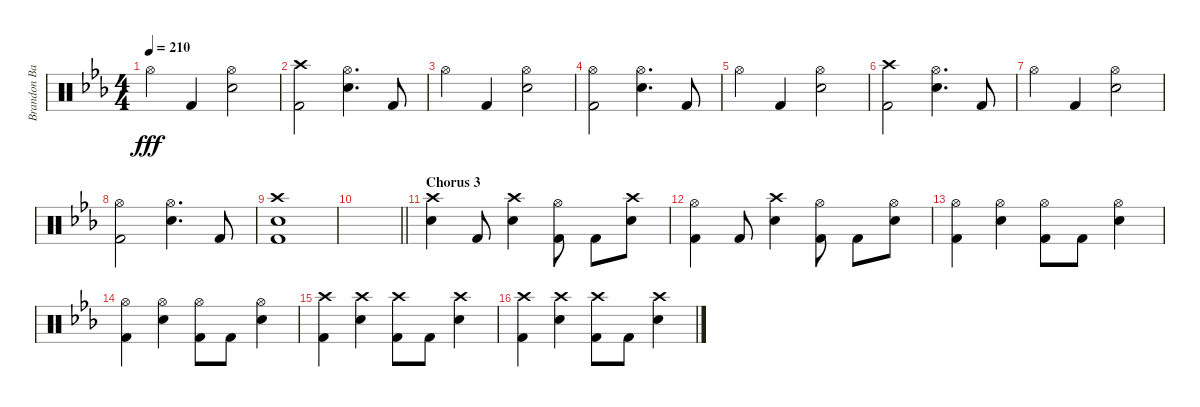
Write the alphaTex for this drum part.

\track ("Brandon Barnes" "Brandon Ba") {instrument percussion}
\staff {score}
\articulation defaults
\ts (4 4)
\tempo 210
\clef neutral
\ks eb "Hi-Hat (open)".4{dy fff} "Kick (hit) 2".4
("Hi-Hat (open)" "Snare (hit) 2").2 |
("Crash high (hit)" "Kick (hit) 2").2 ("Hi-Hat (open)" "Snare (hit) 2").4{d} "Kick (hit) 2".8 |
"Hi-Hat (open)".4 "Kick (hit) 2".4 ("Hi-Hat (open)" "Snare (hit) 2").2 |
("Hi-Hat (open)" "Kick (hit) 2").2 ("Hi-Hat (open)" "Snare (hit) 2").4{d} "Kick (hit) 2".8 |
"Hi-Hat (open)".4 "Kick (hit) 2".4 ("Hi-Hat (open)" "Snare (hit) 2").2 |
("Crash high (hit)" "Kick (hit) 2").2 ("Hi-Hat (open)" "Snare (hit) 2").4{d} "Kick (hit) 2".8 |
"Hi-Hat (open)".4 "Kick (hit) 2".4 ("Hi-Hat (open)" "Snare (hit) 2").2 |
("Hi-Hat (open)" "Kick (hit) 2").2 ("Hi-Hat (open)" "Snare (hit) 2").4{d} "Kick (hit) 2".8 |
("Snare (hit) 2" "Crash high (hit)" "Kick (hit) 2").1 |
\barLineRight lightlight
|
\section ("" "Chorus 3")
("Crash high (hit)" "Snare (hit) 2").4 "Kick (hit) 2".8 ("Crash high (hit)" "Snare (hit) 2").4 ("Hi-Hat (open)" "Kick (hit) 2").8 "Kick (hit) 2".8 ("Crash high (hit)" "Snare (hit) 2").8 |
("Hi-Hat (open)" "Kick (hit) 2").4 "Kick (hit) 2".8 ("Crash high (hit)" "Snare (hit) 2").4 ("Hi-Hat (open)" "Kick (hit) 2").8 "Kick (hit) 2".8 ("Hi-Hat (open)" "Snare (hit) 2").8 |
("Hi-Hat (open)" "Kick (hit) 2").4 ("Hi-Hat (open)" "Snare (hit) 2").4 ("Hi-Hat (open)" "Kick (hit) 2").8 "Kick (hit) 2".8 ("Hi-Hat (open)" "Snare (hit) 2").4 |
("Hi-Hat (open)" "Kick (hit) 2").4 ("Hi-Hat (open)" "Snare (hit) 2").4 ("Hi-Hat (open)" "Kick (hit) 2").8 "Kick (hit) 2".8 ("Hi-Hat (open)" "Snare (hit) 2").4 |
("Crash high (hit)" "Kick (hit) 2").4 ("Crash high (hit)" "Snare (hit) 2").4 ("Crash high (hit)" "Kick (hit) 2").8 "Kick (hit) 2".8 ("Crash high (hit)" "Snare (hit) 2").4 |
("Crash high (hit)" "Kick (hit) 2").4 ("Crash high (hit)" "Snare (hit) 2").4 ("Crash high (hit)" "Kick (hit) 2").8 "Kick (hit) 2".8 ("Crash high (hit)" "Snare (hit) 2").4
